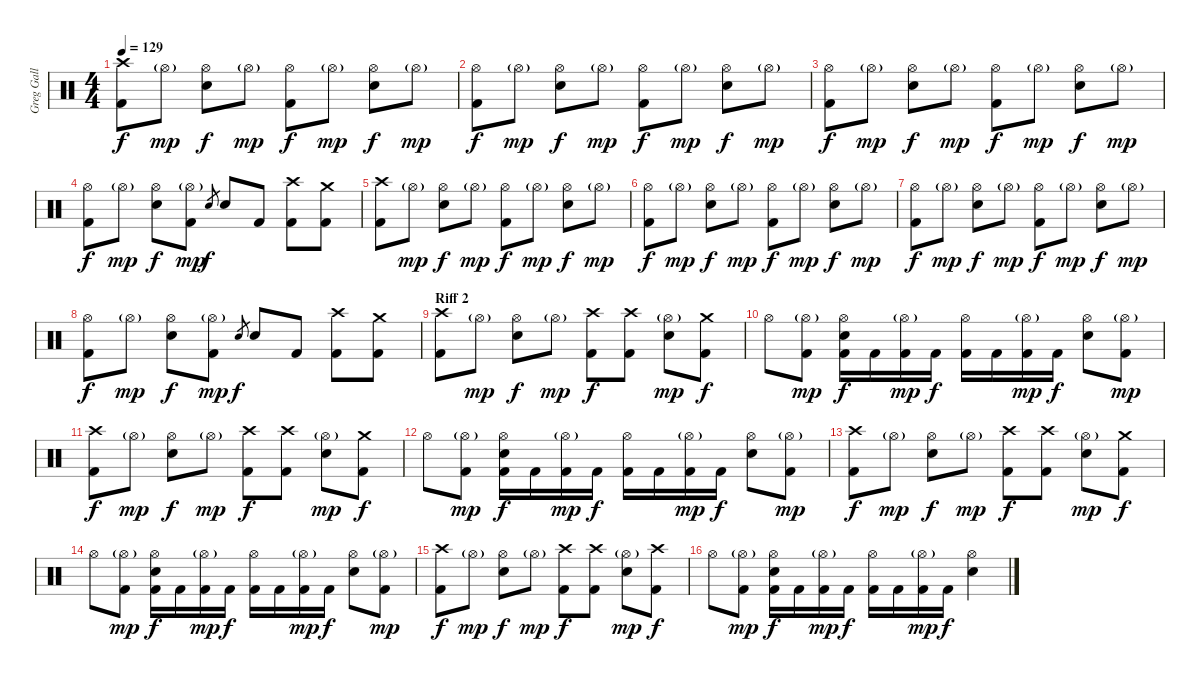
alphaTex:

\track ("Greg Gall (Drums)" "Greg Gall ") {instrument percussion}
\staff {score}
\articulation defaults
\ts (4 4)
\tempo 129
\clef neutral
\ks c
("Crash high (hit)" "Kick (hit) 2").8{dy f} "Hi-Hat (open)"{g}.8{dy mp} ("Hi-Hat (open)" "Electric Snare (hit)").8{dy f} "Hi-Hat (open)"{g}.8{dy mp} ("Hi-Hat (open)" "Kick (hit) 2").8{dy f} "Hi-Hat (open)"{g}.8{dy mp} ("Hi-Hat (open)" "Electric Snare (hit)").8{dy f} "Hi-Hat (open)"{g}.8{dy mp} |
("Hi-Hat (open)" "Kick (hit) 2").8{dy f} "Hi-Hat (open)"{g}.8{dy mp} ("Hi-Hat (open)" "Electric Snare (hit)").8{dy f} "Hi-Hat (open)"{g}.8{dy mp} ("Hi-Hat (open)" "Kick (hit) 2").8{dy f} "Hi-Hat (open)"{g}.8{dy mp} ("Hi-Hat (open)" "Electric Snare (hit)").8{dy f} "Hi-Hat (open)"{g}.8{dy mp} |
("Hi-Hat (open)" "Kick (hit) 2").8{dy f} "Hi-Hat (open)"{g}.8{dy mp} ("Hi-Hat (open)" "Electric Snare (hit)").8{dy f} "Hi-Hat (open)"{g}.8{dy mp} ("Hi-Hat (open)" "Kick (hit) 2").8{dy f} "Hi-Hat (open)"{g}.8{dy mp} ("Hi-Hat (open)" "Electric Snare (hit)").8{dy f} "Hi-Hat (open)"{g}.8{dy mp} |
("Hi-Hat (open)" "Kick (hit) 2").8{dy f} "Hi-Hat (open)"{g}.8{dy mp} ("Hi-Hat (open)" "Electric Snare (hit)").8{dy f} ("Hi-Hat (open)"{g} "Kick (hit) 2").8{dy mp} "Electric Snare (hit)".8{gr dy f} "Electric Snare (hit)".8 "Kick (hit) 2".8 ("Crash high (hit)" "Kick (hit) 2").8 ("Crash medium (hit)" "Kick (hit) 2").8 |
("Crash high (hit)" "Kick (hit) 2").8 "Hi-Hat (open)"{g}.8{dy mp} ("Hi-Hat (open)" "Electric Snare (hit)").8{dy f} "Hi-Hat (open)"{g}.8{dy mp} ("Hi-Hat (open)" "Kick (hit) 2").8{dy f} "Hi-Hat (open)"{g}.8{dy mp} ("Hi-Hat (open)" "Electric Snare (hit)").8{dy f} "Hi-Hat (open)"{g}.8{dy mp} |
("Hi-Hat (open)" "Kick (hit) 2").8{dy f} "Hi-Hat (open)"{g}.8{dy mp} ("Hi-Hat (open)" "Electric Snare (hit)").8{dy f} "Hi-Hat (open)"{g}.8{dy mp} ("Hi-Hat (open)" "Kick (hit) 2").8{dy f} "Hi-Hat (open)"{g}.8{dy mp} ("Hi-Hat (open)" "Electric Snare (hit)").8{dy f} "Hi-Hat (open)"{g}.8{dy mp} |
("Hi-Hat (open)" "Kick (hit) 2").8{dy f} "Hi-Hat (open)"{g}.8{dy mp} ("Hi-Hat (open)" "Electric Snare (hit)").8{dy f} "Hi-Hat (open)"{g}.8{dy mp} ("Hi-Hat (open)" "Kick (hit) 2").8{dy f} "Hi-Hat (open)"{g}.8{dy mp} ("Hi-Hat (open)" "Electric Snare (hit)").8{dy f} "Hi-Hat (open)"{g}.8{dy mp} |
("Hi-Hat (open)" "Kick (hit) 2").8{dy f} "Hi-Hat (open)"{g}.8{dy mp} ("Hi-Hat (open)" "Electric Snare (hit)").8{dy f} ("Hi-Hat (open)"{g} "Kick (hit) 2").8{dy mp} "Electric Snare (hit)".8{gr dy f} "Electric Snare (hit)".8 "Kick (hit) 2".8 ("Crash high (hit)" "Kick (hit) 2").8 ("Crash medium (hit)" "Kick (hit) 2").8 |
\section ("" "Riff 2")
("Crash high (hit)" "Kick (hit) 2").8 "Hi-Hat (open)"{g}.8{dy mp} ("Hi-Hat (open)" "Electric Snare (hit)").8{dy f} "Hi-Hat (open)"{g}.8{dy mp} ("Crash high (hit)" "Kick (hit) 2").8{dy f} ("Crash high (hit)" "Kick (hit) 2").8 ("Hi-Hat (open)"{g} "Electric Snare (hit)").8{dy mp} ("Crash medium (hit)" "Kick (hit) 2").8{dy f} |
"Hi-Hat (open)".8 ("Hi-Hat (open)"{g} "Kick (hit) 2").8{dy mp} ("Hi-Hat (open)" "Electric Snare (hit)" "Kick (hit) 2").16{dy f} "Kick (hit) 2".16 ("Hi-Hat (open)"{g} "Kick (hit) 2").16{dy mp} "Kick (hit) 2".16{dy f} ("Hi-Hat (open)" "Kick (hit) 2").16 "Kick (hit) 2".16 ("Hi-Hat (open)"{g} "Kick (hit) 2").16{dy mp} "Kick (hit) 2".16{dy f} ("Hi-Hat (open)" "Electric Snare (hit)").8 ("Hi-Hat (open)"{g} "Kick (hit) 2").8{dy mp} |
("Crash high (hit)" "Kick (hit) 2").8{dy f} "Hi-Hat (open)"{g}.8{dy mp} ("Hi-Hat (open)" "Electric Snare (hit)").8{dy f} "Hi-Hat (open)"{g}.8{dy mp} ("Crash high (hit)" "Kick (hit) 2").8{dy f} ("Crash high (hit)" "Kick (hit) 2").8 ("Hi-Hat (open)"{g} "Electric Snare (hit)").8{dy mp} ("Crash medium (hit)" "Kick (hit) 2").8{dy f} |
"Hi-Hat (open)".8 ("Hi-Hat (open)"{g} "Kick (hit) 2").8{dy mp} ("Hi-Hat (open)" "Electric Snare (hit)" "Kick (hit) 2").16{dy f} "Kick (hit) 2".16 ("Hi-Hat (open)"{g} "Kick (hit) 2").16{dy mp} "Kick (hit) 2".16{dy f} ("Hi-Hat (open)" "Kick (hit) 2").16 "Kick (hit) 2".16 ("Hi-Hat (open)"{g} "Kick (hit) 2").16{dy mp} "Kick (hit) 2".16{dy f} ("Hi-Hat (open)" "Electric Snare (hit)").8 ("Hi-Hat (open)"{g} "Kick (hit) 2").8{dy mp} |
("Crash high (hit)" "Kick (hit) 2").8{dy f} "Hi-Hat (open)"{g}.8{dy mp} ("Hi-Hat (open)" "Electric Snare (hit)").8{dy f} "Hi-Hat (open)"{g}.8{dy mp} ("Crash high (hit)" "Kick (hit) 2").8{dy f} ("Crash high (hit)" "Kick (hit) 2").8 ("Hi-Hat (open)"{g} "Electric Snare (hit)").8{dy mp} ("Crash medium (hit)" "Kick (hit) 2").8{dy f} |
"Hi-Hat (open)".8 ("Hi-Hat (open)"{g} "Kick (hit) 2").8{dy mp} ("Hi-Hat (open)" "Electric Snare (hit)" "Kick (hit) 2").16{dy f} "Kick (hit) 2".16 ("Hi-Hat (open)"{g} "Kick (hit) 2").16{dy mp} "Kick (hit) 2".16{dy f} ("Hi-Hat (open)" "Kick (hit) 2").16 "Kick (hit) 2".16 ("Hi-Hat (open)"{g} "Kick (hit) 2").16{dy mp} "Kick (hit) 2".16{dy f} ("Hi-Hat (open)" "Electric Snare (hit)").8 ("Hi-Hat (open)"{g} "Kick (hit) 2").8{dy mp} |
("Crash high (hit)" "Kick (hit) 2").8{dy f} "Hi-Hat (open)"{g}.8{dy mp} ("Hi-Hat (open)" "Electric Snare (hit)").8{dy f} "Hi-Hat (open)"{g}.8{dy mp} ("Crash high (hit)" "Kick (hit) 2").8{dy f} ("Crash high (hit)" "Kick (hit) 2").8 ("Hi-Hat (open)"{g} "Electric Snare (hit)").8{dy mp} ("Crash high (hit)" "Kick (hit) 2").8{dy f} |
"Hi-Hat (open)".8 ("Hi-Hat (open)"{g} "Kick (hit) 2").8{dy mp} ("Hi-Hat (open)" "Electric Snare (hit)" "Kick (hit) 2").16{dy f} "Kick (hit) 2".16 ("Hi-Hat (open)"{g} "Kick (hit) 2").16{dy mp} "Kick (hit) 2".16{dy f} ("Hi-Hat (open)" "Kick (hit) 2").16 "Kick (hit) 2".16 ("Hi-Hat (open)"{g} "Kick (hit) 2").16{dy mp} "Kick (hit) 2".16{dy f} ("Hi-Hat (open)" "Electric Snare (hit)").4
